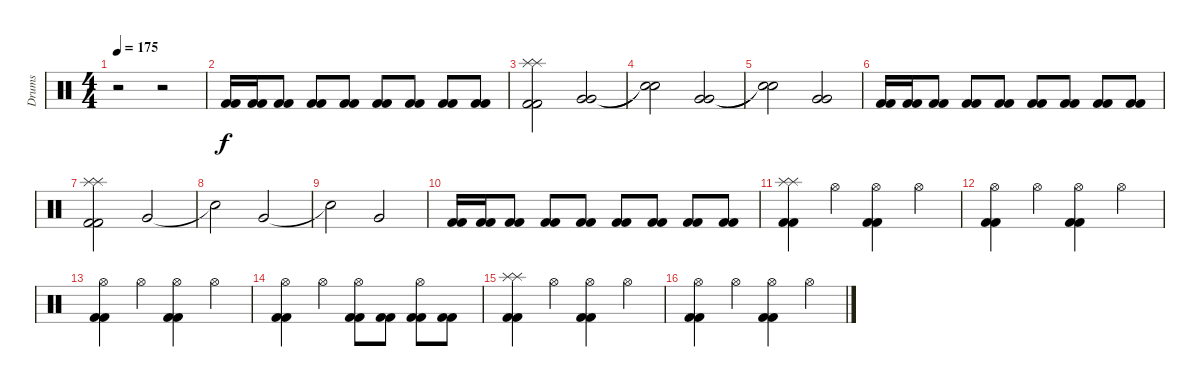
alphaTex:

\track ("Drums" "Drums") {instrument percussion}
\staff {score}
\articulation defaults
\ts (4 4)
\tempo 175
\clef neutral
\ks c
r.2{dy f} r.2 |
("Kick (hit) 2" "Kick (hit) 2").16 ("Kick (hit) 2" "Kick (hit) 2").16 ("Kick (hit) 2" "Kick (hit) 2").8 ("Kick (hit) 2" "Kick (hit) 2").8 ("Kick (hit) 2" "Kick (hit) 2").8 ("Kick (hit) 2" "Kick (hit) 2").8 ("Kick (hit) 2" "Kick (hit) 2").8 ("Kick (hit) 2" "Kick (hit) 2").8 ("Kick (hit) 2" "Kick (hit) 2").8 |
("Splash (hit)" "Splash (hit)" "Kick (hit) 2" "Kick (hit) 2").2 ("Very Low Tom (hit)" "Very Low Tom (hit)").2 |
("Snare (hit)"{t} "Snare (hit)"{t}).2 ("Very Low Tom (hit)" "Very Low Tom (hit)").2 |
("Snare (hit)"{t} "Snare (hit)"{t}).2 ("Very Low Tom (hit)" "Very Low Tom (hit)").2 |
("Kick (hit) 2" "Kick (hit) 2").16 ("Kick (hit) 2" "Kick (hit) 2").16 ("Kick (hit) 2" "Kick (hit) 2").8 ("Kick (hit) 2" "Kick (hit) 2").8 ("Kick (hit) 2" "Kick (hit) 2").8 ("Kick (hit) 2" "Kick (hit) 2").8 ("Kick (hit) 2" "Kick (hit) 2").8 ("Kick (hit) 2" "Kick (hit) 2").8 ("Kick (hit) 2" "Kick (hit) 2").8 |
("Splash (hit)" "Splash (hit)" "Kick (hit) 2" "Kick (hit) 2").2 "Very Low Tom (hit)".2 |
"Snare (hit)"{t}.2 "Very Low Tom (hit)".2 |
"Snare (hit)"{t}.2 "Very Low Tom (hit)".2 |
("Kick (hit) 2" "Kick (hit) 2").16 ("Kick (hit) 2" "Kick (hit) 2").16 ("Kick (hit) 2" "Kick (hit) 2").8 ("Kick (hit) 2" "Kick (hit) 2").8 ("Kick (hit) 2" "Kick (hit) 2").8 ("Kick (hit) 2" "Kick (hit) 2").8 ("Kick (hit) 2" "Kick (hit) 2").8 ("Kick (hit) 2" "Kick (hit) 2").8 ("Kick (hit) 2" "Kick (hit) 2").8 |
("Splash (hit)" "Splash (hit)" "Kick (hit) 2" "Kick (hit) 2").4 "Hi-Hat (open)".4 ("Hi-Hat (open)" "Kick (hit) 2" "Kick (hit) 2").4 "Hi-Hat (open)".4 |
("Hi-Hat (open)" "Kick (hit) 2" "Kick (hit) 2").4 "Hi-Hat (open)".4 ("Hi-Hat (open)" "Kick (hit) 2" "Kick (hit) 2").4 "Hi-Hat (open)".4 |
("Hi-Hat (open)" "Kick (hit) 2" "Kick (hit) 2").4 "Hi-Hat (open)".4 ("Hi-Hat (open)" "Kick (hit) 2" "Kick (hit) 2").4 "Hi-Hat (open)".4 |
("Hi-Hat (open)" "Kick (hit) 2" "Kick (hit) 2").4 "Hi-Hat (open)".4 ("Hi-Hat (open)" "Kick (hit) 2" "Kick (hit) 2").8 ("Kick (hit) 2" "Kick (hit) 2").8 ("Hi-Hat (open)" "Kick (hit) 2" "Kick (hit) 2").8 ("Kick (hit) 2" "Kick (hit) 2").8 |
("Splash (hit)" "Splash (hit)" "Kick (hit) 2" "Kick (hit) 2").4 "Hi-Hat (open)".4 ("Hi-Hat (open)" "Kick (hit) 2" "Kick (hit) 2").4 "Hi-Hat (open)".4 |
("Hi-Hat (open)" "Kick (hit) 2" "Kick (hit) 2").4 "Hi-Hat (open)".4 ("Hi-Hat (open)" "Kick (hit) 2" "Kick (hit) 2").4 "Hi-Hat (open)".4
